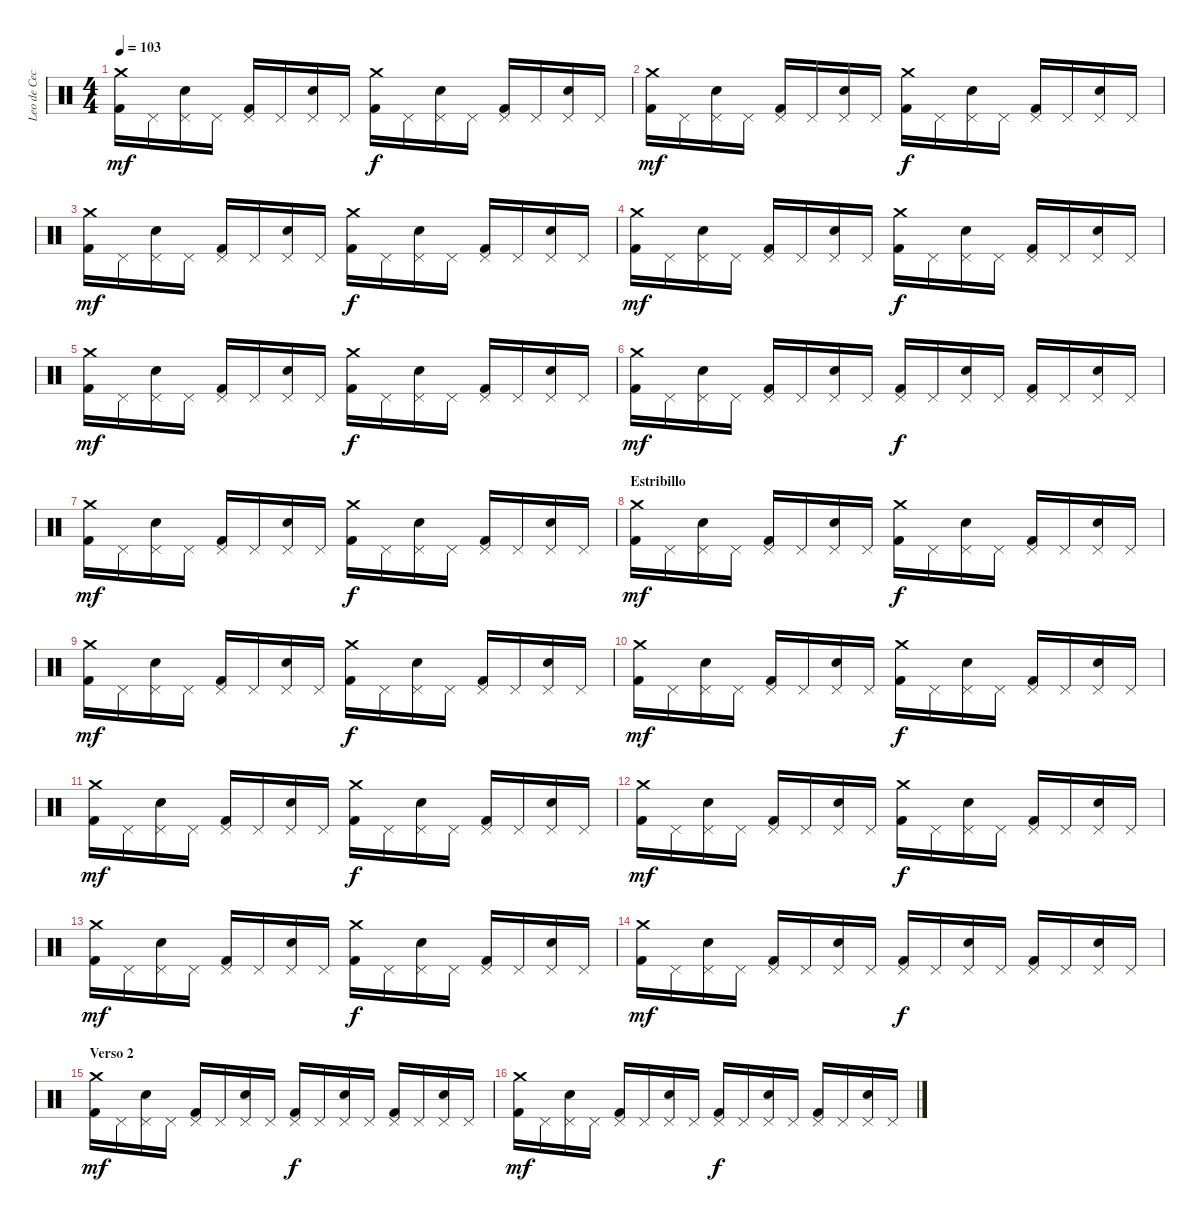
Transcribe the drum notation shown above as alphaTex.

\track ("Leo de Cecco" "Leo de Cec") {instrument percussion}
\staff {score}
\articulation defaults
\ts (4 4)
\tempo 103
\clef neutral
\ks c
("Crash medium (hit)" "Kick (hit) 2").16{dy mf} "Pedal Hi-Hat (hit)".16 ("Pedal Hi-Hat (hit)" "Snare (hit) 2").16 "Pedal Hi-Hat (hit)".16 ("Pedal Hi-Hat (hit)" "Kick (hit) 2").16 "Pedal Hi-Hat (hit)".16 ("Pedal Hi-Hat (hit)" "Snare (hit) 2").16 "Pedal Hi-Hat (hit)".16 ("Crash medium (hit)" "Kick (hit) 2").16{dy f} "Pedal Hi-Hat (hit)".16 ("Pedal Hi-Hat (hit)" "Snare (hit) 2").16 "Pedal Hi-Hat (hit)".16 ("Pedal Hi-Hat (hit)" "Kick (hit) 2").16 "Pedal Hi-Hat (hit)".16 ("Pedal Hi-Hat (hit)" "Snare (hit) 2").16 "Pedal Hi-Hat (hit)".16 |
("Crash medium (hit)" "Kick (hit) 2").16{dy mf} "Pedal Hi-Hat (hit)".16 ("Pedal Hi-Hat (hit)" "Snare (hit) 2").16 "Pedal Hi-Hat (hit)".16 ("Pedal Hi-Hat (hit)" "Kick (hit) 2").16 "Pedal Hi-Hat (hit)".16 ("Pedal Hi-Hat (hit)" "Snare (hit) 2").16 "Pedal Hi-Hat (hit)".16 ("Crash medium (hit)" "Kick (hit) 2").16{dy f} "Pedal Hi-Hat (hit)".16 ("Pedal Hi-Hat (hit)" "Snare (hit) 2").16 "Pedal Hi-Hat (hit)".16 ("Pedal Hi-Hat (hit)" "Kick (hit) 2").16 "Pedal Hi-Hat (hit)".16 ("Pedal Hi-Hat (hit)" "Snare (hit) 2").16 "Pedal Hi-Hat (hit)".16 |
("Crash medium (hit)" "Kick (hit) 2").16{dy mf} "Pedal Hi-Hat (hit)".16 ("Pedal Hi-Hat (hit)" "Snare (hit) 2").16 "Pedal Hi-Hat (hit)".16 ("Pedal Hi-Hat (hit)" "Kick (hit) 2").16 "Pedal Hi-Hat (hit)".16 ("Pedal Hi-Hat (hit)" "Snare (hit) 2").16 "Pedal Hi-Hat (hit)".16 ("Crash medium (hit)" "Kick (hit) 2").16{dy f} "Pedal Hi-Hat (hit)".16 ("Pedal Hi-Hat (hit)" "Snare (hit) 2").16 "Pedal Hi-Hat (hit)".16 ("Pedal Hi-Hat (hit)" "Kick (hit) 2").16 "Pedal Hi-Hat (hit)".16 ("Pedal Hi-Hat (hit)" "Snare (hit) 2").16 "Pedal Hi-Hat (hit)".16 |
("Crash medium (hit)" "Kick (hit) 2").16{dy mf} "Pedal Hi-Hat (hit)".16 ("Pedal Hi-Hat (hit)" "Snare (hit) 2").16 "Pedal Hi-Hat (hit)".16 ("Pedal Hi-Hat (hit)" "Kick (hit) 2").16 "Pedal Hi-Hat (hit)".16 ("Pedal Hi-Hat (hit)" "Snare (hit) 2").16 "Pedal Hi-Hat (hit)".16 ("Crash medium (hit)" "Kick (hit) 2").16{dy f} "Pedal Hi-Hat (hit)".16 ("Pedal Hi-Hat (hit)" "Snare (hit) 2").16 "Pedal Hi-Hat (hit)".16 ("Pedal Hi-Hat (hit)" "Kick (hit) 2").16 "Pedal Hi-Hat (hit)".16 ("Pedal Hi-Hat (hit)" "Snare (hit) 2").16 "Pedal Hi-Hat (hit)".16 |
("Crash medium (hit)" "Kick (hit) 2").16{dy mf} "Pedal Hi-Hat (hit)".16 ("Pedal Hi-Hat (hit)" "Snare (hit) 2").16 "Pedal Hi-Hat (hit)".16 ("Pedal Hi-Hat (hit)" "Kick (hit) 2").16 "Pedal Hi-Hat (hit)".16 ("Pedal Hi-Hat (hit)" "Snare (hit) 2").16 "Pedal Hi-Hat (hit)".16 ("Crash medium (hit)" "Kick (hit) 2").16{dy f} "Pedal Hi-Hat (hit)".16 ("Pedal Hi-Hat (hit)" "Snare (hit) 2").16 "Pedal Hi-Hat (hit)".16 ("Pedal Hi-Hat (hit)" "Kick (hit) 2").16 "Pedal Hi-Hat (hit)".16 ("Pedal Hi-Hat (hit)" "Snare (hit) 2").16 "Pedal Hi-Hat (hit)".16 |
("Crash medium (hit)" "Kick (hit) 2").16{dy mf} "Pedal Hi-Hat (hit)".16 ("Pedal Hi-Hat (hit)" "Snare (hit) 2").16 "Pedal Hi-Hat (hit)".16 ("Pedal Hi-Hat (hit)" "Kick (hit) 2").16 "Pedal Hi-Hat (hit)".16 ("Pedal Hi-Hat (hit)" "Snare (hit) 2").16 "Pedal Hi-Hat (hit)".16 ("Pedal Hi-Hat (hit)" "Kick (hit) 2").16{dy f} "Pedal Hi-Hat (hit)".16 ("Pedal Hi-Hat (hit)" "Snare (hit) 2").16 "Pedal Hi-Hat (hit)".16 ("Pedal Hi-Hat (hit)" "Kick (hit) 2").16 "Pedal Hi-Hat (hit)".16 ("Pedal Hi-Hat (hit)" "Snare (hit) 2").16 "Pedal Hi-Hat (hit)".16 |
("Crash medium (hit)" "Kick (hit) 2").16{dy mf} "Pedal Hi-Hat (hit)".16 ("Pedal Hi-Hat (hit)" "Snare (hit) 2").16 "Pedal Hi-Hat (hit)".16 ("Pedal Hi-Hat (hit)" "Kick (hit) 2").16 "Pedal Hi-Hat (hit)".16 ("Pedal Hi-Hat (hit)" "Snare (hit) 2").16 "Pedal Hi-Hat (hit)".16 ("Crash medium (hit)" "Kick (hit) 2").16{dy f} "Pedal Hi-Hat (hit)".16 ("Pedal Hi-Hat (hit)" "Snare (hit) 2").16 "Pedal Hi-Hat (hit)".16 ("Pedal Hi-Hat (hit)" "Kick (hit) 2").16 "Pedal Hi-Hat (hit)".16 ("Pedal Hi-Hat (hit)" "Snare (hit) 2").16 "Pedal Hi-Hat (hit)".16 |
\section ("" "Estribillo")
("Crash medium (hit)" "Kick (hit) 2").16{dy mf} "Pedal Hi-Hat (hit)".16 ("Pedal Hi-Hat (hit)" "Snare (hit) 2").16 "Pedal Hi-Hat (hit)".16 ("Pedal Hi-Hat (hit)" "Kick (hit) 2").16 "Pedal Hi-Hat (hit)".16 ("Pedal Hi-Hat (hit)" "Snare (hit) 2").16 "Pedal Hi-Hat (hit)".16 ("Crash medium (hit)" "Kick (hit) 2").16{dy f} "Pedal Hi-Hat (hit)".16 ("Pedal Hi-Hat (hit)" "Snare (hit) 2").16 "Pedal Hi-Hat (hit)".16 ("Pedal Hi-Hat (hit)" "Kick (hit) 2").16 "Pedal Hi-Hat (hit)".16 ("Pedal Hi-Hat (hit)" "Snare (hit) 2").16 "Pedal Hi-Hat (hit)".16 |
("Crash medium (hit)" "Kick (hit) 2").16{dy mf} "Pedal Hi-Hat (hit)".16 ("Pedal Hi-Hat (hit)" "Snare (hit) 2").16 "Pedal Hi-Hat (hit)".16 ("Pedal Hi-Hat (hit)" "Kick (hit) 2").16 "Pedal Hi-Hat (hit)".16 ("Pedal Hi-Hat (hit)" "Snare (hit) 2").16 "Pedal Hi-Hat (hit)".16 ("Crash medium (hit)" "Kick (hit) 2").16{dy f} "Pedal Hi-Hat (hit)".16 ("Pedal Hi-Hat (hit)" "Snare (hit) 2").16 "Pedal Hi-Hat (hit)".16 ("Pedal Hi-Hat (hit)" "Kick (hit) 2").16 "Pedal Hi-Hat (hit)".16 ("Pedal Hi-Hat (hit)" "Snare (hit) 2").16 "Pedal Hi-Hat (hit)".16 |
("Crash medium (hit)" "Kick (hit) 2").16{dy mf} "Pedal Hi-Hat (hit)".16 ("Pedal Hi-Hat (hit)" "Snare (hit) 2").16 "Pedal Hi-Hat (hit)".16 ("Pedal Hi-Hat (hit)" "Kick (hit) 2").16 "Pedal Hi-Hat (hit)".16 ("Pedal Hi-Hat (hit)" "Snare (hit) 2").16 "Pedal Hi-Hat (hit)".16 ("Crash medium (hit)" "Kick (hit) 2").16{dy f} "Pedal Hi-Hat (hit)".16 ("Pedal Hi-Hat (hit)" "Snare (hit) 2").16 "Pedal Hi-Hat (hit)".16 ("Pedal Hi-Hat (hit)" "Kick (hit) 2").16 "Pedal Hi-Hat (hit)".16 ("Pedal Hi-Hat (hit)" "Snare (hit) 2").16 "Pedal Hi-Hat (hit)".16 |
("Crash medium (hit)" "Kick (hit) 2").16{dy mf} "Pedal Hi-Hat (hit)".16 ("Pedal Hi-Hat (hit)" "Snare (hit) 2").16 "Pedal Hi-Hat (hit)".16 ("Pedal Hi-Hat (hit)" "Kick (hit) 2").16 "Pedal Hi-Hat (hit)".16 ("Pedal Hi-Hat (hit)" "Snare (hit) 2").16 "Pedal Hi-Hat (hit)".16 ("Crash medium (hit)" "Kick (hit) 2").16{dy f} "Pedal Hi-Hat (hit)".16 ("Pedal Hi-Hat (hit)" "Snare (hit) 2").16 "Pedal Hi-Hat (hit)".16 ("Pedal Hi-Hat (hit)" "Kick (hit) 2").16 "Pedal Hi-Hat (hit)".16 ("Pedal Hi-Hat (hit)" "Snare (hit) 2").16 "Pedal Hi-Hat (hit)".16 |
("Crash medium (hit)" "Kick (hit) 2").16{dy mf} "Pedal Hi-Hat (hit)".16 ("Pedal Hi-Hat (hit)" "Snare (hit) 2").16 "Pedal Hi-Hat (hit)".16 ("Pedal Hi-Hat (hit)" "Kick (hit) 2").16 "Pedal Hi-Hat (hit)".16 ("Pedal Hi-Hat (hit)" "Snare (hit) 2").16 "Pedal Hi-Hat (hit)".16 ("Crash medium (hit)" "Kick (hit) 2").16{dy f} "Pedal Hi-Hat (hit)".16 ("Pedal Hi-Hat (hit)" "Snare (hit) 2").16 "Pedal Hi-Hat (hit)".16 ("Pedal Hi-Hat (hit)" "Kick (hit) 2").16 "Pedal Hi-Hat (hit)".16 ("Pedal Hi-Hat (hit)" "Snare (hit) 2").16 "Pedal Hi-Hat (hit)".16 |
("Crash medium (hit)" "Kick (hit) 2").16{dy mf} "Pedal Hi-Hat (hit)".16 ("Pedal Hi-Hat (hit)" "Snare (hit) 2").16 "Pedal Hi-Hat (hit)".16 ("Pedal Hi-Hat (hit)" "Kick (hit) 2").16 "Pedal Hi-Hat (hit)".16 ("Pedal Hi-Hat (hit)" "Snare (hit) 2").16 "Pedal Hi-Hat (hit)".16 ("Crash medium (hit)" "Kick (hit) 2").16{dy f} "Pedal Hi-Hat (hit)".16 ("Pedal Hi-Hat (hit)" "Snare (hit) 2").16 "Pedal Hi-Hat (hit)".16 ("Pedal Hi-Hat (hit)" "Kick (hit) 2").16 "Pedal Hi-Hat (hit)".16 ("Pedal Hi-Hat (hit)" "Snare (hit) 2").16 "Pedal Hi-Hat (hit)".16 |
("Crash medium (hit)" "Kick (hit) 2").16{dy mf} "Pedal Hi-Hat (hit)".16 ("Pedal Hi-Hat (hit)" "Snare (hit) 2").16 "Pedal Hi-Hat (hit)".16 ("Pedal Hi-Hat (hit)" "Kick (hit) 2").16 "Pedal Hi-Hat (hit)".16 ("Pedal Hi-Hat (hit)" "Snare (hit) 2").16 "Pedal Hi-Hat (hit)".16 ("Pedal Hi-Hat (hit)" "Kick (hit) 2").16{dy f} "Pedal Hi-Hat (hit)".16 ("Pedal Hi-Hat (hit)" "Snare (hit) 2").16 "Pedal Hi-Hat (hit)".16 ("Pedal Hi-Hat (hit)" "Kick (hit) 2").16 "Pedal Hi-Hat (hit)".16 ("Pedal Hi-Hat (hit)" "Snare (hit) 2").16 "Pedal Hi-Hat (hit)".16 |
\section ("" "Verso 2")
("Crash medium (hit)" "Kick (hit) 2").16{dy mf} "Pedal Hi-Hat (hit)".16 ("Pedal Hi-Hat (hit)" "Snare (hit) 2").16 "Pedal Hi-Hat (hit)".16 ("Pedal Hi-Hat (hit)" "Kick (hit) 2").16 "Pedal Hi-Hat (hit)".16 ("Pedal Hi-Hat (hit)" "Snare (hit) 2").16 "Pedal Hi-Hat (hit)".16 ("Pedal Hi-Hat (hit)" "Kick (hit) 2").16{dy f} "Pedal Hi-Hat (hit)".16 ("Pedal Hi-Hat (hit)" "Snare (hit) 2").16 "Pedal Hi-Hat (hit)".16 ("Pedal Hi-Hat (hit)" "Kick (hit) 2").16 "Pedal Hi-Hat (hit)".16 ("Pedal Hi-Hat (hit)" "Snare (hit) 2").16 "Pedal Hi-Hat (hit)".16 |
("Crash medium (hit)" "Kick (hit) 2").16{dy mf} "Pedal Hi-Hat (hit)".16 ("Pedal Hi-Hat (hit)" "Snare (hit) 2").16 "Pedal Hi-Hat (hit)".16 ("Pedal Hi-Hat (hit)" "Kick (hit) 2").16 "Pedal Hi-Hat (hit)".16 ("Pedal Hi-Hat (hit)" "Snare (hit) 2").16 "Pedal Hi-Hat (hit)".16 ("Pedal Hi-Hat (hit)" "Kick (hit) 2").16{dy f} "Pedal Hi-Hat (hit)".16 ("Pedal Hi-Hat (hit)" "Snare (hit) 2").16 "Pedal Hi-Hat (hit)".16 ("Pedal Hi-Hat (hit)" "Kick (hit) 2").16 "Pedal Hi-Hat (hit)".16 ("Pedal Hi-Hat (hit)" "Snare (hit) 2").16 "Pedal Hi-Hat (hit)".16
